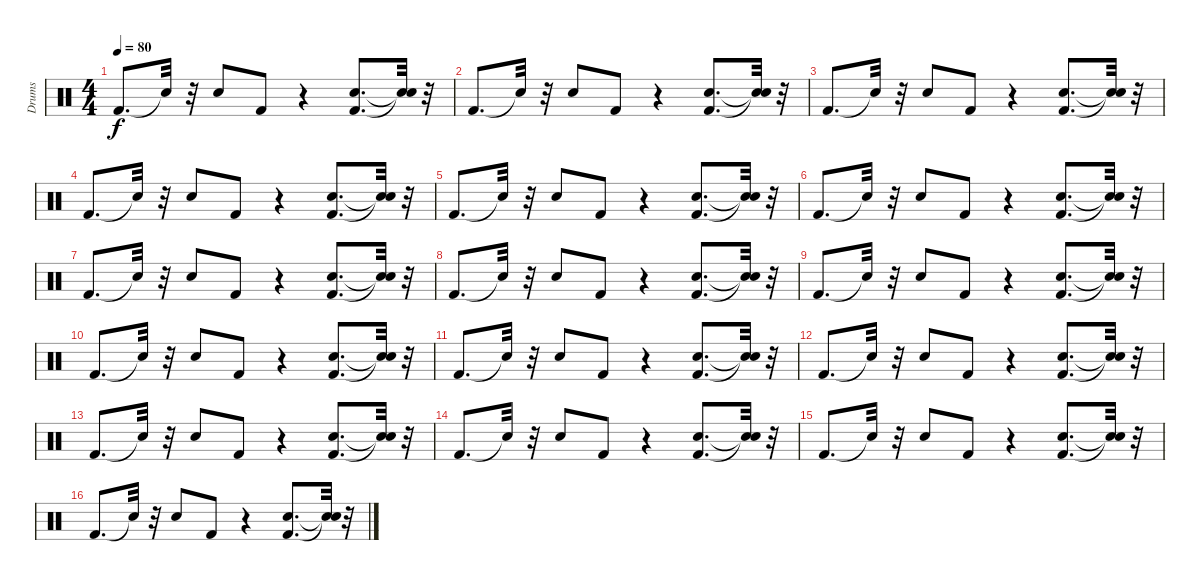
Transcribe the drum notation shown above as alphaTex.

\track ("Drums" "Drums") {instrument percussion}
\staff {score}
\articulation defaults
\ts (4 4)
\tempo 80
\clef neutral
\ks c "Kick (hit) 2".8{d dy f} "Snare (hit)"{t}.32
r.32 "Snare (hit) 2".8 "Kick (hit) 2".8 r.4 ("Kick (hit) 2" "Snare (hit) 2").8{d} ("Snare (hit)"{t} "Snare (hit)"{t}).32 r.32 |
"Kick (hit) 2".8{d} "Snare (hit)"{t}.32 r.32 "Snare (hit) 2".8 "Kick (hit) 2".8 r.4 ("Kick (hit) 2" "Snare (hit) 2").8{d} ("Snare (hit)"{t} "Snare (hit)"{t}).32 r.32 |
"Kick (hit) 2".8{d} "Snare (hit)"{t}.32 r.32 "Snare (hit) 2".8 "Kick (hit) 2".8 r.4 ("Kick (hit) 2" "Snare (hit) 2").8{d} ("Snare (hit)"{t} "Snare (hit)"{t}).32 r.32 |
"Kick (hit) 2".8{d} "Snare (hit)"{t}.32 r.32 "Snare (hit) 2".8 "Kick (hit) 2".8 r.4 ("Kick (hit) 2" "Snare (hit) 2").8{d} ("Snare (hit)"{t} "Snare (hit)"{t}).32 r.32 |
"Kick (hit) 2".8{d} "Snare (hit)"{t}.32 r.32 "Snare (hit) 2".8 "Kick (hit) 2".8 r.4 ("Kick (hit) 2" "Snare (hit) 2").8{d} ("Snare (hit)"{t} "Snare (hit)"{t}).32 r.32 |
"Kick (hit) 2".8{d} "Snare (hit)"{t}.32 r.32 "Snare (hit) 2".8 "Kick (hit) 2".8 r.4 ("Kick (hit) 2" "Snare (hit) 2").8{d} ("Snare (hit)"{t} "Snare (hit)"{t}).32 r.32 |
"Kick (hit) 2".8{d} "Snare (hit)"{t}.32 r.32 "Snare (hit) 2".8 "Kick (hit) 2".8 r.4 ("Kick (hit) 2" "Snare (hit) 2").8{d} ("Snare (hit)"{t} "Snare (hit)"{t}).32 r.32 |
"Kick (hit) 2".8{d} "Snare (hit)"{t}.32 r.32 "Snare (hit) 2".8 "Kick (hit) 2".8 r.4 ("Kick (hit) 2" "Snare (hit) 2").8{d} ("Snare (hit)"{t} "Snare (hit)"{t}).32 r.32 |
"Kick (hit) 2".8{d} "Snare (hit)"{t}.32 r.32 "Snare (hit) 2".8 "Kick (hit) 2".8 r.4 ("Kick (hit) 2" "Snare (hit) 2").8{d} ("Snare (hit)"{t} "Snare (hit)"{t}).32 r.32 |
"Kick (hit) 2".8{d} "Snare (hit)"{t}.32 r.32 "Snare (hit) 2".8 "Kick (hit) 2".8 r.4 ("Kick (hit) 2" "Snare (hit) 2").8{d} ("Snare (hit)"{t} "Snare (hit)"{t}).32 r.32 |
"Kick (hit) 2".8{d} "Snare (hit)"{t}.32 r.32 "Snare (hit) 2".8 "Kick (hit) 2".8 r.4 ("Snare (hit) 2" "Kick (hit) 2").8{d} ("Snare (hit)"{t} "Snare (hit)"{t}).32 r.32 |
"Kick (hit) 2".8{d} "Snare (hit)"{t}.32 r.32 "Snare (hit) 2".8 "Kick (hit) 2".8 r.4 ("Snare (hit) 2" "Kick (hit) 2").8{d} ("Snare (hit)"{t} "Snare (hit)"{t}).32 r.32 |
"Kick (hit) 2".8{d} "Snare (hit)"{t}.32 r.32 "Snare (hit) 2".8 "Kick (hit) 2".8 r.4 ("Snare (hit) 2" "Kick (hit) 2").8{d} ("Snare (hit)"{t} "Snare (hit)"{t}).32 r.32 |
"Kick (hit) 2".8{d} "Snare (hit)"{t}.32 r.32 "Snare (hit) 2".8 "Kick (hit) 2".8 r.4 ("Kick (hit) 2" "Snare (hit) 2").8{d} ("Snare (hit)"{t} "Snare (hit)"{t}).32 r.32 |
"Kick (hit) 2".8{d} "Snare (hit)"{t}.32 r.32 "Snare (hit) 2".8 "Kick (hit) 2".8 r.4 ("Snare (hit) 2" "Kick (hit) 2").8{d} ("Snare (hit)"{t} "Snare (hit)"{t}).32 r.32 |
"Kick (hit) 2".8{d} "Snare (hit)"{t}.32 r.32 "Snare (hit) 2".8 "Kick (hit) 2".8 r.4 ("Snare (hit) 2" "Kick (hit) 2").8{d} ("Snare (hit)"{t} "Snare (hit)"{t}).32 r.32
